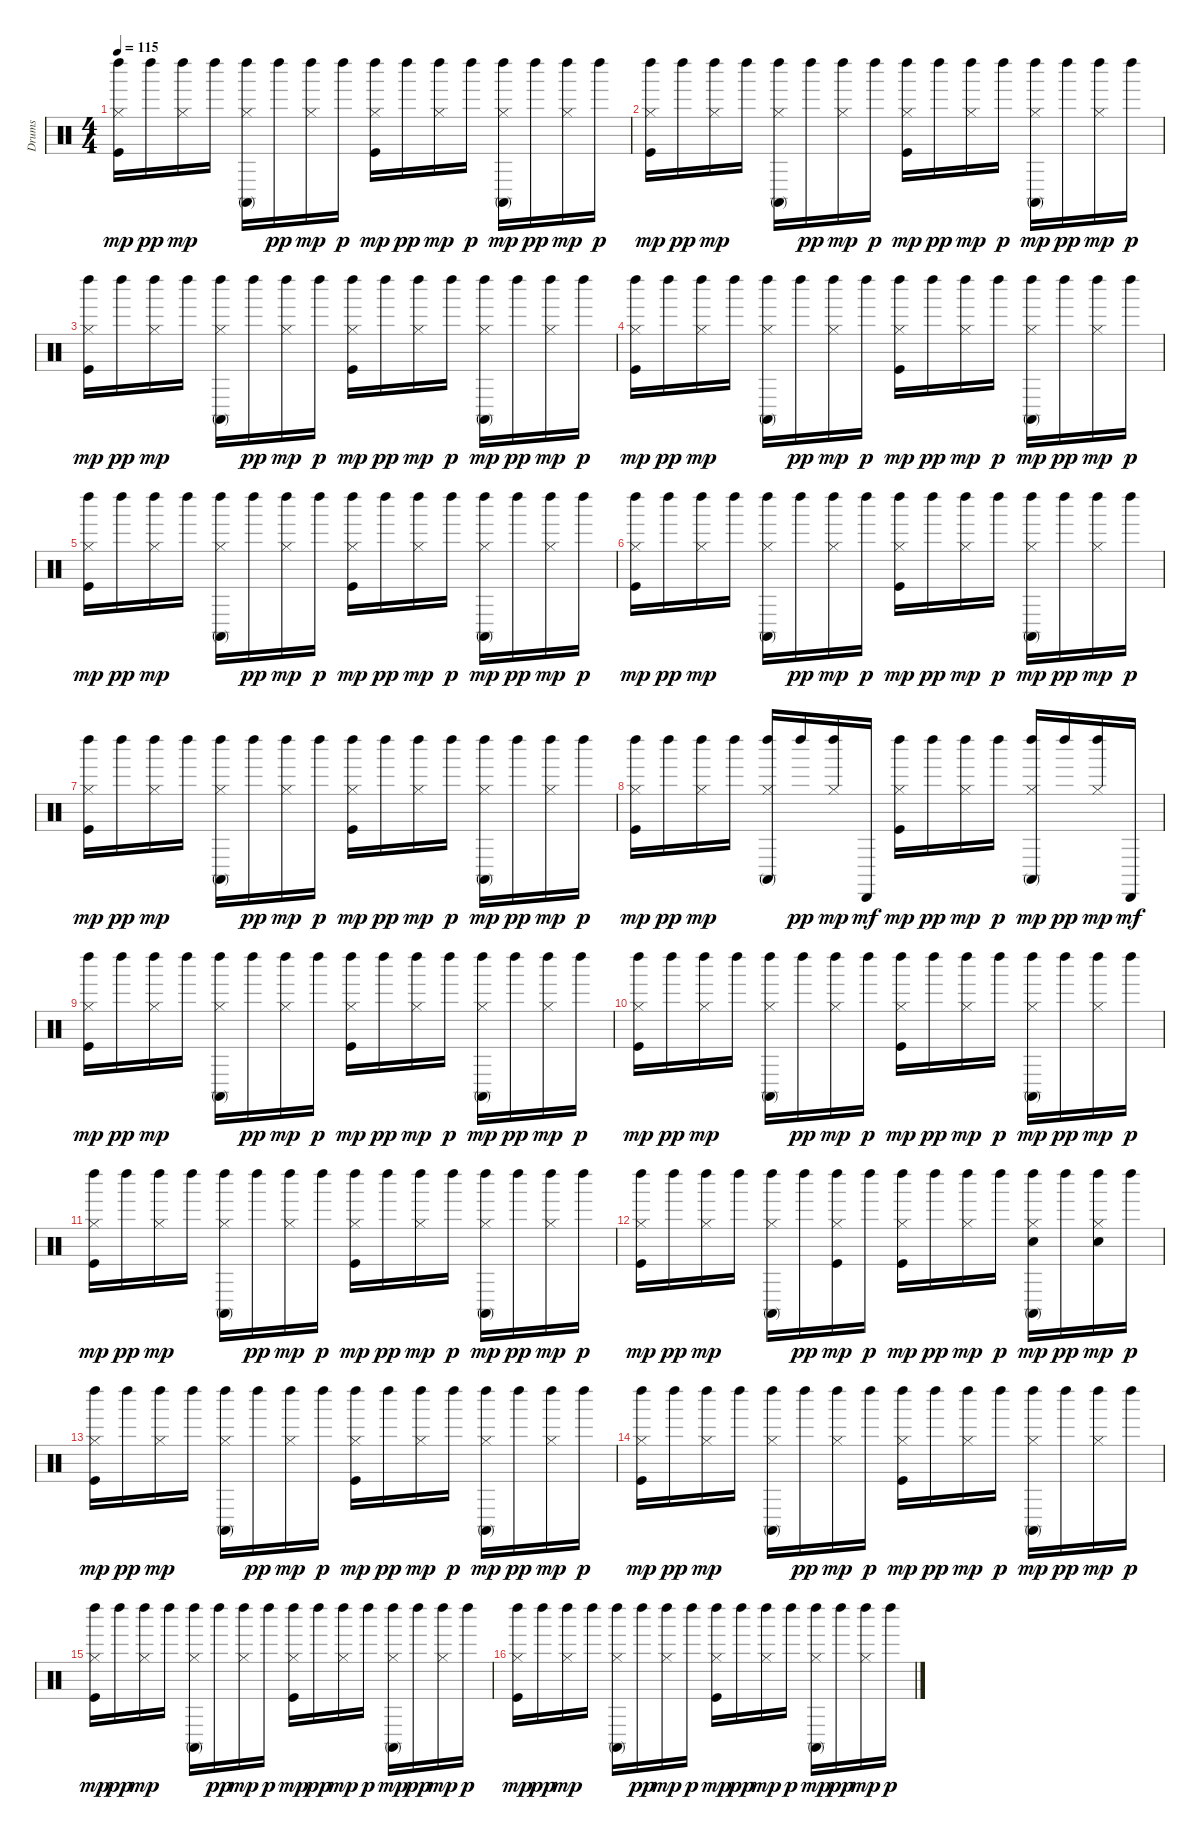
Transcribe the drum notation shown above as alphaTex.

\track ("Drums" "Drums") {instrument percussion}
\staff {score}
\articulation defaults
\ts (4 4)
\tempo 115
\clef neutral
\ks c
("Kick (hit)" "Hi-Hat (closed)" "Left Maraca (hit)").16{dy mp} "Left Maraca (hit)".16{dy pp} ("Hi-Hat (closed)" "Left Maraca (hit)").16{dy mp} "Left Maraca (hit)".16 ("Hi-Hat (closed)" "Conga high (mute)" "Left Maraca (hit)").16 "Left Maraca (hit)".16{dy pp} ("Hi-Hat (closed)" "Left Maraca (hit)").16{dy mp} "Left Maraca (hit)".16{dy p} ("Kick (hit)" "Hi-Hat (closed)" "Left Maraca (hit)").16{dy mp} "Left Maraca (hit)".16{dy pp} ("Hi-Hat (closed)" "Left Maraca (hit)").16{dy mp} "Left Maraca (hit)".16{dy p} ("Hi-Hat (closed)" "Conga high (mute)" "Left Maraca (hit)").16{dy mp} "Left Maraca (hit)".16{dy pp} ("Hi-Hat (closed)" "Left Maraca (hit)").16{dy mp} "Left Maraca (hit)".16{dy p} |
("Kick (hit)" "Hi-Hat (closed)" "Left Maraca (hit)").16{dy mp} "Left Maraca (hit)".16{dy pp} ("Hi-Hat (closed)" "Left Maraca (hit)").16{dy mp} "Left Maraca (hit)".16 ("Hi-Hat (closed)" "Conga high (mute)" "Left Maraca (hit)").16 "Left Maraca (hit)".16{dy pp} ("Hi-Hat (closed)" "Left Maraca (hit)").16{dy mp} "Left Maraca (hit)".16{dy p} ("Kick (hit)" "Hi-Hat (closed)" "Left Maraca (hit)").16{dy mp} "Left Maraca (hit)".16{dy pp} ("Hi-Hat (closed)" "Left Maraca (hit)").16{dy mp} "Left Maraca (hit)".16{dy p} ("Hi-Hat (closed)" "Conga high (mute)" "Left Maraca (hit)").16{dy mp} "Left Maraca (hit)".16{dy pp} ("Hi-Hat (closed)" "Left Maraca (hit)").16{dy mp} "Left Maraca (hit)".16{dy p} |
("Kick (hit)" "Hi-Hat (closed)" "Left Maraca (hit)").16{dy mp volume 14 balance 8} "Left Maraca (hit)".16{dy pp} ("Hi-Hat (closed)" "Left Maraca (hit)").16{dy mp} "Left Maraca (hit)".16 ("Hi-Hat (closed)" "Conga high (mute)" "Left Maraca (hit)").16 "Left Maraca (hit)".16{dy pp} ("Hi-Hat (closed)" "Left Maraca (hit)").16{dy mp} "Left Maraca (hit)".16{dy p} ("Kick (hit)" "Hi-Hat (closed)" "Left Maraca (hit)").16{dy mp} "Left Maraca (hit)".16{dy pp} ("Hi-Hat (closed)" "Left Maraca (hit)").16{dy mp} "Left Maraca (hit)".16{dy p} ("Hi-Hat (closed)" "Conga high (mute)" "Left Maraca (hit)").16{dy mp} "Left Maraca (hit)".16{dy pp} ("Hi-Hat (closed)" "Left Maraca (hit)").16{dy mp} "Left Maraca (hit)".16{dy p} |
("Kick (hit)" "Hi-Hat (closed)" "Left Maraca (hit)").16{dy mp} "Left Maraca (hit)".16{dy pp} ("Hi-Hat (closed)" "Left Maraca (hit)").16{dy mp} "Left Maraca (hit)".16 ("Hi-Hat (closed)" "Conga high (mute)" "Left Maraca (hit)").16 "Left Maraca (hit)".16{dy pp} ("Hi-Hat (closed)" "Left Maraca (hit)").16{dy mp} "Left Maraca (hit)".16{dy p} ("Kick (hit)" "Hi-Hat (closed)" "Left Maraca (hit)").16{dy mp} "Left Maraca (hit)".16{dy pp} ("Hi-Hat (closed)" "Left Maraca (hit)").16{dy mp} "Left Maraca (hit)".16{dy p} ("Hi-Hat (closed)" "Conga high (mute)" "Left Maraca (hit)").16{dy mp} "Left Maraca (hit)".16{dy pp} ("Hi-Hat (closed)" "Left Maraca (hit)").16{dy mp} "Left Maraca (hit)".16{dy p} |
("Kick (hit)" "Hi-Hat (closed)" "Left Maraca (hit)").16{dy mp} "Left Maraca (hit)".16{dy pp} ("Hi-Hat (closed)" "Left Maraca (hit)").16{dy mp} "Left Maraca (hit)".16 ("Hi-Hat (closed)" "Conga high (mute)" "Left Maraca (hit)").16 "Left Maraca (hit)".16{dy pp} ("Hi-Hat (closed)" "Left Maraca (hit)").16{dy mp} "Left Maraca (hit)".16{dy p} ("Kick (hit)" "Hi-Hat (closed)" "Left Maraca (hit)").16{dy mp} "Left Maraca (hit)".16{dy pp} ("Hi-Hat (closed)" "Left Maraca (hit)").16{dy mp} "Left Maraca (hit)".16{dy p} ("Hi-Hat (closed)" "Conga high (mute)" "Left Maraca (hit)").16{dy mp} "Left Maraca (hit)".16{dy pp} ("Hi-Hat (closed)" "Left Maraca (hit)").16{dy mp} "Left Maraca (hit)".16{dy p} |
("Kick (hit)" "Hi-Hat (closed)" "Left Maraca (hit)").16{dy mp} "Left Maraca (hit)".16{dy pp} ("Hi-Hat (closed)" "Left Maraca (hit)").16{dy mp} "Left Maraca (hit)".16 ("Hi-Hat (closed)" "Conga high (mute)" "Left Maraca (hit)").16 "Left Maraca (hit)".16{dy pp} ("Hi-Hat (closed)" "Left Maraca (hit)").16{dy mp} "Left Maraca (hit)".16{dy p} ("Kick (hit)" "Hi-Hat (closed)" "Left Maraca (hit)").16{dy mp} "Left Maraca (hit)".16{dy pp} ("Hi-Hat (closed)" "Left Maraca (hit)").16{dy mp} "Left Maraca (hit)".16{dy p} ("Hi-Hat (closed)" "Conga high (mute)" "Left Maraca (hit)").16{dy mp} "Left Maraca (hit)".16{dy pp} ("Hi-Hat (closed)" "Left Maraca (hit)").16{dy mp} "Left Maraca (hit)".16{dy p} |
("Kick (hit)" "Hi-Hat (closed)" "Left Maraca (hit)").16{dy mp} "Left Maraca (hit)".16{dy pp} ("Hi-Hat (closed)" "Left Maraca (hit)").16{dy mp} "Left Maraca (hit)".16 ("Hi-Hat (closed)" "Conga high (mute)" "Left Maraca (hit)").16 "Left Maraca (hit)".16{dy pp} ("Hi-Hat (closed)" "Left Maraca (hit)").16{dy mp} "Left Maraca (hit)".16{dy p} ("Kick (hit)" "Hi-Hat (closed)" "Left Maraca (hit)").16{dy mp} "Left Maraca (hit)".16{dy pp} ("Hi-Hat (closed)" "Left Maraca (hit)").16{dy mp} "Left Maraca (hit)".16{dy p} ("Hi-Hat (closed)" "Conga high (mute)" "Left Maraca (hit)").16{dy mp} "Left Maraca (hit)".16{dy pp} ("Hi-Hat (closed)" "Left Maraca (hit)").16{dy mp} "Left Maraca (hit)".16{dy p} |
("Kick (hit)" "Hi-Hat (closed)" "Left Maraca (hit)").16{dy mp} "Left Maraca (hit)".16{dy pp} ("Hi-Hat (closed)" "Left Maraca (hit)").16{dy mp} "Left Maraca (hit)".16 ("Hi-Hat (closed)" "Conga high (mute)" "Left Maraca (hit)").16 "Left Maraca (hit)".16{dy pp} ("Hi-Hat (closed)" "Left Maraca (hit)").16{dy mp} "Cabasa (hit)".16{dy mf} ("Kick (hit)" "Hi-Hat (closed)" "Left Maraca (hit)").16{dy mp} "Left Maraca (hit)".16{dy pp} ("Hi-Hat (closed)" "Left Maraca (hit)").16{dy mp} "Left Maraca (hit)".16{dy p} ("Hi-Hat (closed)" "Conga high (mute)" "Left Maraca (hit)").16{dy mp} "Left Maraca (hit)".16{dy pp} ("Hi-Hat (closed)" "Left Maraca (hit)").16{dy mp} "Cabasa (hit)".16{dy mf} |
("Kick (hit)" "Hi-Hat (closed)" "Left Maraca (hit)").16{dy mp} "Left Maraca (hit)".16{dy pp} ("Hi-Hat (closed)" "Left Maraca (hit)").16{dy mp} "Left Maraca (hit)".16 ("Hi-Hat (closed)" "Conga high (mute)" "Left Maraca (hit)").16 "Left Maraca (hit)".16{dy pp} ("Hi-Hat (closed)" "Left Maraca (hit)").16{dy mp} "Left Maraca (hit)".16{dy p} ("Kick (hit)" "Hi-Hat (closed)" "Left Maraca (hit)").16{dy mp} "Left Maraca (hit)".16{dy pp} ("Hi-Hat (closed)" "Left Maraca (hit)").16{dy mp} "Left Maraca (hit)".16{dy p} ("Hi-Hat (closed)" "Conga high (mute)" "Left Maraca (hit)").16{dy mp} "Left Maraca (hit)".16{dy pp} ("Hi-Hat (closed)" "Left Maraca (hit)").16{dy mp} "Left Maraca (hit)".16{dy p} |
("Kick (hit)" "Hi-Hat (closed)" "Left Maraca (hit)").16{dy mp} "Left Maraca (hit)".16{dy pp} ("Hi-Hat (closed)" "Left Maraca (hit)").16{dy mp} "Left Maraca (hit)".16 ("Hi-Hat (closed)" "Conga high (mute)" "Left Maraca (hit)").16 "Left Maraca (hit)".16{dy pp} ("Hi-Hat (closed)" "Left Maraca (hit)").16{dy mp} "Left Maraca (hit)".16{dy p} ("Kick (hit)" "Hi-Hat (closed)" "Left Maraca (hit)").16{dy mp} "Left Maraca (hit)".16{dy pp} ("Hi-Hat (closed)" "Left Maraca (hit)").16{dy mp} "Left Maraca (hit)".16{dy p} ("Hi-Hat (closed)" "Conga high (mute)" "Left Maraca (hit)").16{dy mp} "Left Maraca (hit)".16{dy pp} ("Hi-Hat (closed)" "Left Maraca (hit)").16{dy mp} "Left Maraca (hit)".16{dy p} |
("Kick (hit)" "Hi-Hat (closed)" "Left Maraca (hit)").16{dy mp} "Left Maraca (hit)".16{dy pp} ("Hi-Hat (closed)" "Left Maraca (hit)").16{dy mp} "Left Maraca (hit)".16 ("Hi-Hat (closed)" "Conga high (mute)" "Left Maraca (hit)").16 "Left Maraca (hit)".16{dy pp} ("Hi-Hat (closed)" "Left Maraca (hit)").16{dy mp} "Left Maraca (hit)".16{dy p} ("Kick (hit)" "Hi-Hat (closed)" "Left Maraca (hit)").16{dy mp} "Left Maraca (hit)".16{dy pp} ("Hi-Hat (closed)" "Left Maraca (hit)").16{dy mp} "Left Maraca (hit)".16{dy p} ("Hi-Hat (closed)" "Conga high (mute)" "Left Maraca (hit)").16{dy mp} "Left Maraca (hit)".16{dy pp} ("Hi-Hat (closed)" "Left Maraca (hit)").16{dy mp} "Left Maraca (hit)".16{dy p} |
("Kick (hit)" "Hi-Hat (closed)" "Left Maraca (hit)").16{dy mp} "Left Maraca (hit)".16{dy pp} ("Hi-Hat (closed)" "Left Maraca (hit)").16{dy mp} "Left Maraca (hit)".16 ("Hi-Hat (closed)" "Conga high (mute)" "Left Maraca (hit)").16 "Left Maraca (hit)".16{dy pp} ("Kick (hit)" "Hi-Hat (closed)" "Left Maraca (hit)").16{dy mp} "Left Maraca (hit)".16{dy p} ("Kick (hit)" "Hi-Hat (closed)" "Left Maraca (hit)").16{dy mp} "Left Maraca (hit)".16{dy pp} ("Hi-Hat (closed)" "Left Maraca (hit)").16{dy mp} "Left Maraca (hit)".16{dy p} ("Snare (hit) 2" "Hi-Hat (closed)" "Conga high (mute)" "Left Maraca (hit)").16{dy mp} "Left Maraca (hit)".16{dy pp} ("Snare (hit) 2" "Hi-Hat (closed)" "Left Maraca (hit)").16{dy mp} "Left Maraca (hit)".16{dy p} |
("Kick (hit)" "Hi-Hat (closed)" "Left Maraca (hit)").16{dy mp} "Left Maraca (hit)".16{dy pp} ("Hi-Hat (closed)" "Left Maraca (hit)").16{dy mp} "Left Maraca (hit)".16 ("Hi-Hat (closed)" "Conga high (mute)" "Left Maraca (hit)").16 "Left Maraca (hit)".16{dy pp} ("Hi-Hat (closed)" "Left Maraca (hit)").16{dy mp} "Left Maraca (hit)".16{dy p} ("Kick (hit)" "Hi-Hat (closed)" "Left Maraca (hit)").16{dy mp} "Left Maraca (hit)".16{dy pp} ("Hi-Hat (closed)" "Left Maraca (hit)").16{dy mp} "Left Maraca (hit)".16{dy p} ("Hi-Hat (closed)" "Conga high (mute)" "Left Maraca (hit)").16{dy mp} "Left Maraca (hit)".16{dy pp} ("Hi-Hat (closed)" "Left Maraca (hit)").16{dy mp} "Left Maraca (hit)".16{dy p} |
("Kick (hit)" "Hi-Hat (closed)" "Left Maraca (hit)").16{dy mp} "Left Maraca (hit)".16{dy pp} ("Hi-Hat (closed)" "Left Maraca (hit)").16{dy mp} "Left Maraca (hit)".16 ("Hi-Hat (closed)" "Conga high (mute)" "Left Maraca (hit)").16 "Left Maraca (hit)".16{dy pp} ("Hi-Hat (closed)" "Left Maraca (hit)").16{dy mp} "Left Maraca (hit)".16{dy p} ("Kick (hit)" "Hi-Hat (closed)" "Left Maraca (hit)").16{dy mp} "Left Maraca (hit)".16{dy pp} ("Hi-Hat (closed)" "Left Maraca (hit)").16{dy mp} "Left Maraca (hit)".16{dy p} ("Hi-Hat (closed)" "Conga high (mute)" "Left Maraca (hit)").16{dy mp} "Left Maraca (hit)".16{dy pp} ("Hi-Hat (closed)" "Left Maraca (hit)").16{dy mp} "Left Maraca (hit)".16{dy p} |
("Kick (hit)" "Hi-Hat (closed)" "Left Maraca (hit)").16{dy mp} "Left Maraca (hit)".16{dy pp} ("Hi-Hat (closed)" "Left Maraca (hit)").16{dy mp} "Left Maraca (hit)".16 ("Hi-Hat (closed)" "Conga high (mute)" "Left Maraca (hit)").16 "Left Maraca (hit)".16{dy pp} ("Hi-Hat (closed)" "Left Maraca (hit)").16{dy mp} "Left Maraca (hit)".16{dy p} ("Kick (hit)" "Hi-Hat (closed)" "Left Maraca (hit)").16{dy mp} "Left Maraca (hit)".16{dy pp} ("Hi-Hat (closed)" "Left Maraca (hit)").16{dy mp} "Left Maraca (hit)".16{dy p} ("Hi-Hat (closed)" "Conga high (mute)" "Left Maraca (hit)").16{dy mp} "Left Maraca (hit)".16{dy pp} ("Hi-Hat (closed)" "Left Maraca (hit)").16{dy mp} "Left Maraca (hit)".16{dy p} |
("Kick (hit)" "Hi-Hat (closed)" "Left Maraca (hit)").16{dy mp} "Left Maraca (hit)".16{dy pp} ("Hi-Hat (closed)" "Left Maraca (hit)").16{dy mp} "Left Maraca (hit)".16 ("Hi-Hat (closed)" "Conga high (mute)" "Left Maraca (hit)").16 "Left Maraca (hit)".16{dy pp} ("Hi-Hat (closed)" "Left Maraca (hit)").16{dy mp} "Left Maraca (hit)".16{dy p} ("Kick (hit)" "Hi-Hat (closed)" "Left Maraca (hit)").16{dy mp} "Left Maraca (hit)".16{dy pp} ("Hi-Hat (closed)" "Left Maraca (hit)").16{dy mp} "Left Maraca (hit)".16{dy p} ("Hi-Hat (closed)" "Conga high (mute)" "Left Maraca (hit)").16{dy mp} "Left Maraca (hit)".16{dy pp} ("Hi-Hat (closed)" "Left Maraca (hit)").16{dy mp} "Left Maraca (hit)".16{dy p}
